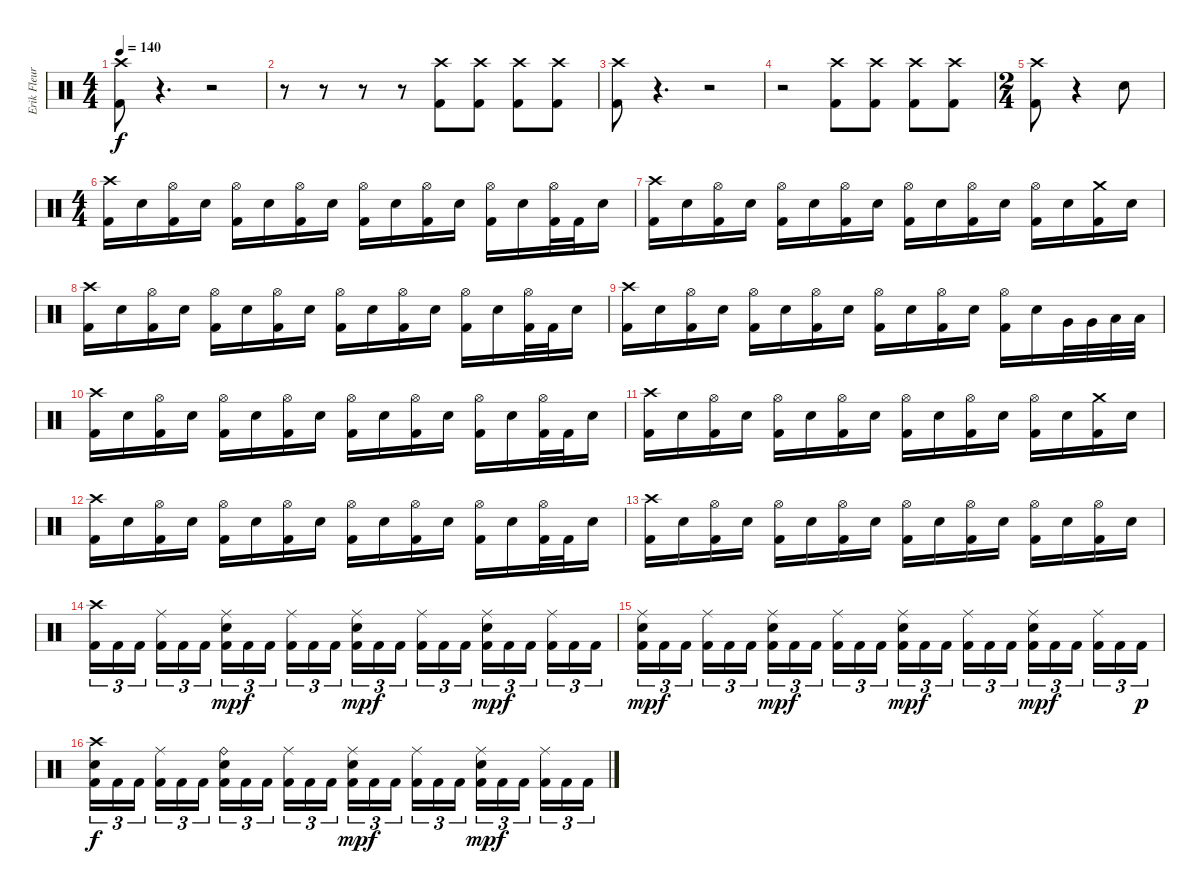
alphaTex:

\track ("Erik Fleuren" "Erik Fleur") {instrument percussion}
\staff {score}
\articulation defaults
\ts (4 4)
\tempo 140
\clef neutral
\ks c
("Crash high (hit)" "Kick (hit) 2").8{dy f} r.4{d volume 0} r.2 |
r.8 r.8 r.8 r.8 ("Crash high (hit)" "Kick (hit) 2").8{volume 13} ("Crash high (hit)" "Kick (hit) 2").8 ("Crash high (hit)" "Kick (hit) 2").8 ("Crash high (hit)" "Kick (hit) 2").8 |
("Crash high (hit)" "Kick (hit) 2").8 r.4{d volume 0} r.2 |
r.2 ("Crash high (hit)" "Kick (hit) 2").8{volume 13} ("Crash high (hit)" "Kick (hit) 2").8 ("Crash high (hit)" "Kick (hit) 2").8 ("Crash high (hit)" "Kick (hit) 2").8 |
\ts (2 4)
("Crash high (hit)" "Kick (hit) 2").8 r.4{volume 0} "Electric Snare (hit)".8{volume 13} |
\ts (4 4)
("Crash high (hit)" "Kick (hit) 2").16 "Electric Snare (hit)".16 ("Hi-Hat (open)" "Kick (hit) 2").16 "Electric Snare (hit)".16 ("Hi-Hat (open)" "Kick (hit) 2").16 "Electric Snare (hit)".16 ("Hi-Hat (open)" "Kick (hit) 2").16 "Electric Snare (hit)".16 ("Hi-Hat (open)" "Kick (hit) 2").16 "Electric Snare (hit)".16 ("Hi-Hat (open)" "Kick (hit) 2").16 "Electric Snare (hit)".16 ("Hi-Hat (open)" "Kick (hit) 2").16 "Electric Snare (hit)".16 ("Hi-Hat (open)" "Kick (hit) 2").32 "Kick (hit) 2".32 "Electric Snare (hit)".16 |
("Crash high (hit)" "Kick (hit) 2").16 "Electric Snare (hit)".16 ("Hi-Hat (open)" "Kick (hit) 2").16 "Electric Snare (hit)".16 ("Hi-Hat (open)" "Kick (hit) 2").16 "Electric Snare (hit)".16 ("Hi-Hat (open)" "Kick (hit) 2").16 "Electric Snare (hit)".16 ("Hi-Hat (open)" "Kick (hit) 2").16 "Electric Snare (hit)".16 ("Hi-Hat (open)" "Kick (hit) 2").16 "Electric Snare (hit)".16 ("Hi-Hat (open)" "Kick (hit) 2").16 "Electric Snare (hit)".16 ("Crash medium (hit)" "Kick (hit) 2").16 "Electric Snare (hit)".16 |
("Crash high (hit)" "Kick (hit) 2").16 "Electric Snare (hit)".16 ("Hi-Hat (open)" "Kick (hit) 2").16 "Electric Snare (hit)".16 ("Hi-Hat (open)" "Kick (hit) 2").16 "Electric Snare (hit)".16 ("Hi-Hat (open)" "Kick (hit) 2").16 "Electric Snare (hit)".16 ("Hi-Hat (open)" "Kick (hit) 2").16 "Electric Snare (hit)".16 ("Hi-Hat (open)" "Kick (hit) 2").16 "Electric Snare (hit)".16 ("Hi-Hat (open)" "Kick (hit) 2").16 "Electric Snare (hit)".16 ("Hi-Hat (open)" "Kick (hit) 2").32 "Kick (hit) 2".32 "Electric Snare (hit)".16 |
("Crash high (hit)" "Kick (hit) 2").16 "Electric Snare (hit)".16 ("Hi-Hat (open)" "Kick (hit) 2").16 "Electric Snare (hit)".16 ("Hi-Hat (open)" "Kick (hit) 2").16 "Electric Snare (hit)".16 ("Hi-Hat (open)" "Kick (hit) 2").16 "Electric Snare (hit)".16 ("Hi-Hat (open)" "Kick (hit) 2").16 "Electric Snare (hit)".16 ("Hi-Hat (open)" "Kick (hit) 2").16 "Electric Snare (hit)".16 ("Hi-Hat (open)" "Kick (hit) 2").16 "Electric Snare (hit)".16 "Very Low Tom (hit)".32 "Very Low Tom (hit)".32 "Low Floor Tom (hit)".32 "Low Floor Tom (hit)".32 |
("Crash high (hit)" "Kick (hit) 2").16 "Electric Snare (hit)".16 ("Hi-Hat (open)" "Kick (hit) 2").16 "Electric Snare (hit)".16 ("Hi-Hat (open)" "Kick (hit) 2").16 "Electric Snare (hit)".16 ("Hi-Hat (open)" "Kick (hit) 2").16 "Electric Snare (hit)".16 ("Hi-Hat (open)" "Kick (hit) 2").16 "Electric Snare (hit)".16 ("Hi-Hat (open)" "Kick (hit) 2").16 "Electric Snare (hit)".16 ("Hi-Hat (open)" "Kick (hit) 2").16 "Electric Snare (hit)".16 ("Hi-Hat (open)" "Kick (hit) 2").32 "Kick (hit) 2".32 "Electric Snare (hit)".16 |
("Crash high (hit)" "Kick (hit) 2").16 "Electric Snare (hit)".16 ("Hi-Hat (open)" "Kick (hit) 2").16 "Electric Snare (hit)".16 ("Hi-Hat (open)" "Kick (hit) 2").16 "Electric Snare (hit)".16 ("Hi-Hat (open)" "Kick (hit) 2").16 "Electric Snare (hit)".16 ("Hi-Hat (open)" "Kick (hit) 2").16 "Electric Snare (hit)".16 ("Hi-Hat (open)" "Kick (hit) 2").16 "Electric Snare (hit)".16 ("Hi-Hat (open)" "Kick (hit) 2").16 "Electric Snare (hit)".16 ("Crash medium (hit)" "Kick (hit) 2").16 "Electric Snare (hit)".16 |
("Crash high (hit)" "Kick (hit) 2").16 "Electric Snare (hit)".16 ("Hi-Hat (open)" "Kick (hit) 2").16 "Electric Snare (hit)".16 ("Hi-Hat (open)" "Kick (hit) 2").16 "Electric Snare (hit)".16 ("Hi-Hat (open)" "Kick (hit) 2").16 "Electric Snare (hit)".16 ("Hi-Hat (open)" "Kick (hit) 2").16 "Electric Snare (hit)".16 ("Hi-Hat (open)" "Kick (hit) 2").16 "Electric Snare (hit)".16 ("Hi-Hat (open)" "Kick (hit) 2").16 "Electric Snare (hit)".16 ("Hi-Hat (open)" "Kick (hit) 2").32 "Kick (hit) 2".32 "Electric Snare (hit)".16 |
("Crash high (hit)" "Kick (hit) 2").16 "Electric Snare (hit)".16 ("Hi-Hat (open)" "Kick (hit) 2").16 "Electric Snare (hit)".16 ("Hi-Hat (open)" "Kick (hit) 2").16 "Electric Snare (hit)".16 ("Hi-Hat (open)" "Kick (hit) 2").16 "Electric Snare (hit)".16 ("Hi-Hat (open)" "Kick (hit) 2").16 "Electric Snare (hit)".16 ("Hi-Hat (open)" "Kick (hit) 2").16 "Electric Snare (hit)".16 ("Hi-Hat (open)" "Kick (hit) 2").16 "Electric Snare (hit)".16 ("Hi-Hat (open)" "Kick (hit) 2").16 "Electric Snare (hit)".16 |
("Crash high (hit)" "Kick (hit) 2").16{tu (3 2)} "Kick (hit) 2".16{tu (3 2)} "Kick (hit) 2".16{tu (3 2) beam splitsecondary} ("Ride (middle)" "Kick (hit) 2").16{tu (3 2)} "Kick (hit) 2".16{tu (3 2)} "Kick (hit) 2".16{tu (3 2)} ("Ride (middle)" "Electric Snare (hit)" "Kick (hit) 2").16{tu (3 2) dy mp} "Kick (hit) 2".16{tu (3 2) dy f} "Kick (hit) 2".16{tu (3 2) beam splitsecondary} ("Ride (middle)" "Kick (hit) 2").16{tu (3 2)} "Kick (hit) 2".16{tu (3 2)} "Kick (hit) 2".16{tu (3 2)} ("Ride (middle)" "Electric Snare (hit)" "Kick (hit) 2").16{tu (3 2) dy mp} "Kick (hit) 2".16{tu (3 2) dy f} "Kick (hit) 2".16{tu (3 2) beam splitsecondary} ("Ride (middle)" "Kick (hit) 2").16{tu (3 2)} "Kick (hit) 2".16{tu (3 2)} "Kick (hit) 2".16{tu (3 2)} ("Ride (middle)" "Electric Snare (hit)" "Kick (hit) 2").16{tu (3 2) dy mp} "Kick (hit) 2".16{tu (3 2) dy f} "Kick (hit) 2".16{tu (3 2) beam splitsecondary} ("Ride (middle)" "Kick (hit) 2").16{tu (3 2)} "Kick (hit) 2".16{tu (3 2)} "Kick (hit) 2".16{tu (3 2)} |
("Ride (middle)" "Electric Snare (hit)" "Kick (hit) 2").16{tu (3 2) dy mp} "Kick (hit) 2".16{tu (3 2) dy f} "Kick (hit) 2".16{tu (3 2) beam splitsecondary} ("Ride (middle)" "Kick (hit) 2").16{tu (3 2)} "Kick (hit) 2".16{tu (3 2)} "Kick (hit) 2".16{tu (3 2)} ("Ride (middle)" "Electric Snare (hit)" "Kick (hit) 2").16{tu (3 2) dy mp} "Kick (hit) 2".16{tu (3 2) dy f} "Kick (hit) 2".16{tu (3 2) beam splitsecondary} ("Ride (middle)" "Kick (hit) 2").16{tu (3 2)} "Kick (hit) 2".16{tu (3 2)} "Kick (hit) 2".16{tu (3 2)} ("Ride (middle)" "Electric Snare (hit)" "Kick (hit) 2").16{tu (3 2) dy mp} "Kick (hit) 2".16{tu (3 2) dy f} "Kick (hit) 2".16{tu (3 2) beam splitsecondary} ("Ride (middle)" "Kick (hit) 2").16{tu (3 2)} "Kick (hit) 2".16{tu (3 2)} "Kick (hit) 2".16{tu (3 2)} ("Ride (middle)" "Electric Snare (hit)" "Kick (hit) 2").16{tu (3 2) dy mp} "Kick (hit) 2".16{tu (3 2) dy f} "Kick (hit) 2".16{tu (3 2) beam splitsecondary} ("Ride (middle)" "Kick (hit) 2").16{tu (3 2)} "Kick (hit) 2".16{tu (3 2)} "Kick (hit) 2".16{tu (3 2) dy p} |
("Crash high (hit)" "Electric Snare (hit)" "Kick (hit) 2").16{tu (3 2) dy f} "Kick (hit) 2".16{tu (3 2)} "Kick (hit) 2".16{tu (3 2) beam splitsecondary} ("Ride (middle)" "Kick (hit) 2").16{tu (3 2)} "Kick (hit) 2".16{tu (3 2)} "Kick (hit) 2".16{tu (3 2)} ("Ride (bell)" "Electric Snare (hit)" "Kick (hit) 2").16{tu (3 2)} "Kick (hit) 2".16{tu (3 2)} "Kick (hit) 2".16{tu (3 2) beam splitsecondary} ("Ride (middle)" "Kick (hit) 2").16{tu (3 2)} "Kick (hit) 2".16{tu (3 2)} "Kick (hit) 2".16{tu (3 2)} ("Ride (middle)" "Electric Snare (hit)" "Kick (hit) 2").16{tu (3 2) dy mp} "Kick (hit) 2".16{tu (3 2) dy f} "Kick (hit) 2".16{tu (3 2) beam splitsecondary} ("Ride (middle)" "Kick (hit) 2").16{tu (3 2)} "Kick (hit) 2".16{tu (3 2)} "Kick (hit) 2".16{tu (3 2)} ("Ride (middle)" "Electric Snare (hit)" "Kick (hit) 2").16{tu (3 2) dy mp} "Kick (hit) 2".16{tu (3 2) dy f} "Kick (hit) 2".16{tu (3 2) beam splitsecondary} ("Ride (middle)" "Kick (hit) 2").16{tu (3 2)} "Kick (hit) 2".16{tu (3 2)} "Kick (hit) 2".16{tu (3 2)}
